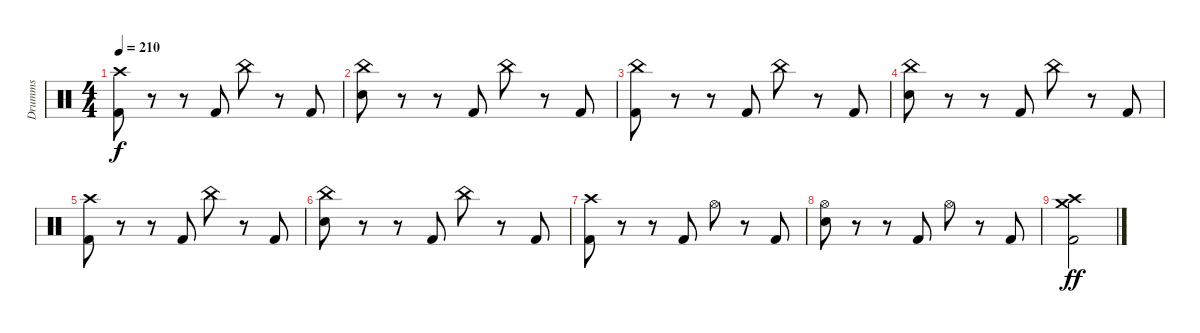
\track ("Drumms" "Drumms") {instrument percussion}
\staff {score}
\articulation defaults
\ts (4 4)
\tempo 210
\clef neutral
\ks c
("Crash high (hit)" "Kick (hit) 2").8{dy f} r.8 r.8 "Kick (hit) 2".8 "China (hit)".8 r.8 "Kick (hit) 2".8 |
("China (hit)" "Snare (hit) 2").8 r.8 r.8 "Kick (hit) 2".8 "China (hit)".8 r.8 "Kick (hit) 2".8 |
("China (hit)" "Kick (hit) 2").8 r.8 r.8 "Kick (hit) 2".8 "China (hit)".8 r.8 "Kick (hit) 2".8 |
("China (hit)" "Snare (hit) 2").8 r.8 r.8 "Kick (hit) 2".8 "China (hit)".8 r.8 "Kick (hit) 2".8 |
("Crash high (hit)" "Kick (hit) 2").8 r.8 r.8 "Kick (hit) 2".8 "China (hit)".8 r.8 "Kick (hit) 2".8 |
("China (hit)" "Snare (hit) 2").8 r.8 r.8 "Kick (hit) 2".8 "China (hit)".8 r.8 "Kick (hit) 2".8 |
("Crash high (hit)" "Kick (hit) 2").8 r.8 r.8 "Kick (hit) 2".8 "Hi-Hat (open)".8 r.8 "Kick (hit) 2".8 |
("Hi-Hat (open)" "Snare (hit) 2").8 r.8 r.8 "Kick (hit) 2".8 "Hi-Hat (open)".8 r.8 "Kick (hit) 2".8 |
("Crash medium (hit)" "Crash high (hit)" "Kick (hit) 2").2{dy ff}
